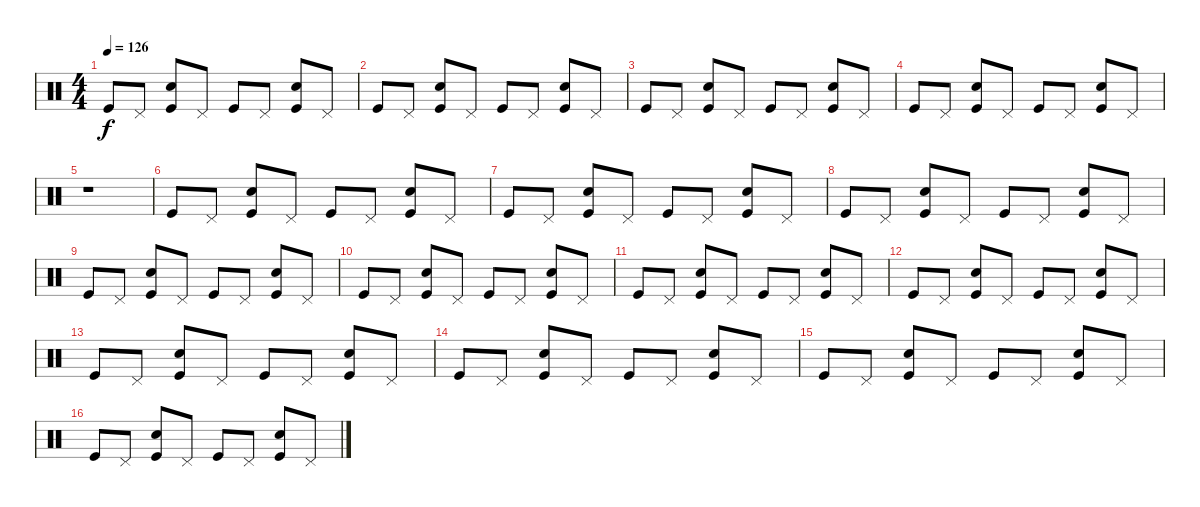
\track "" {instrument percussion}
\staff {score}
\articulation defaults
\ts (4 4)
\tempo 126
\clef neutral
\ks c "Kick (hit)".8{dy f} "Pedal Hi-Hat (hit)".8
("Kick (hit)" "Hand Clap (hit)").8 "Pedal Hi-Hat (hit)".8 "Kick (hit)".8 "Pedal Hi-Hat (hit)".8 ("Kick (hit)" "Hand Clap (hit)").8 "Pedal Hi-Hat (hit)".8 |
"Kick (hit)".8 "Pedal Hi-Hat (hit)".8 ("Kick (hit)" "Hand Clap (hit)").8 "Pedal Hi-Hat (hit)".8 "Kick (hit)".8 "Pedal Hi-Hat (hit)".8 ("Kick (hit)" "Hand Clap (hit)").8 "Pedal Hi-Hat (hit)".8 |
"Kick (hit)".8 "Pedal Hi-Hat (hit)".8 ("Kick (hit)" "Hand Clap (hit)").8 "Pedal Hi-Hat (hit)".8 "Kick (hit)".8 "Pedal Hi-Hat (hit)".8 ("Kick (hit)" "Hand Clap (hit)").8 "Pedal Hi-Hat (hit)".8 |
"Kick (hit)".8 "Pedal Hi-Hat (hit)".8 ("Kick (hit)" "Hand Clap (hit)").8 "Pedal Hi-Hat (hit)".8 "Kick (hit)".8 "Pedal Hi-Hat (hit)".8 ("Kick (hit)" "Hand Clap (hit)").8 "Pedal Hi-Hat (hit)".8 |
r.1 |
"Kick (hit)".8 "Pedal Hi-Hat (hit)".8 ("Kick (hit)" "Hand Clap (hit)").8 "Pedal Hi-Hat (hit)".8 "Kick (hit)".8 "Pedal Hi-Hat (hit)".8 ("Kick (hit)" "Hand Clap (hit)").8 "Pedal Hi-Hat (hit)".8 |
"Kick (hit)".8 "Pedal Hi-Hat (hit)".8 ("Kick (hit)" "Hand Clap (hit)").8 "Pedal Hi-Hat (hit)".8 "Kick (hit)".8 "Pedal Hi-Hat (hit)".8 ("Kick (hit)" "Hand Clap (hit)").8 "Pedal Hi-Hat (hit)".8 |
"Kick (hit)".8 "Pedal Hi-Hat (hit)".8 ("Kick (hit)" "Hand Clap (hit)").8 "Pedal Hi-Hat (hit)".8 "Kick (hit)".8 "Pedal Hi-Hat (hit)".8 ("Kick (hit)" "Hand Clap (hit)").8 "Pedal Hi-Hat (hit)".8 |
"Kick (hit)".8 "Pedal Hi-Hat (hit)".8 ("Kick (hit)" "Hand Clap (hit)").8 "Pedal Hi-Hat (hit)".8 "Kick (hit)".8 "Pedal Hi-Hat (hit)".8 ("Kick (hit)" "Hand Clap (hit)").8 "Pedal Hi-Hat (hit)".8 |
"Kick (hit)".8 "Pedal Hi-Hat (hit)".8 ("Kick (hit)" "Hand Clap (hit)").8 "Pedal Hi-Hat (hit)".8 "Kick (hit)".8 "Pedal Hi-Hat (hit)".8 ("Kick (hit)" "Hand Clap (hit)").8 "Pedal Hi-Hat (hit)".8 |
"Kick (hit)".8 "Pedal Hi-Hat (hit)".8 ("Kick (hit)" "Hand Clap (hit)").8 "Pedal Hi-Hat (hit)".8 "Kick (hit)".8 "Pedal Hi-Hat (hit)".8 ("Kick (hit)" "Hand Clap (hit)").8 "Pedal Hi-Hat (hit)".8 |
"Kick (hit)".8 "Pedal Hi-Hat (hit)".8 ("Kick (hit)" "Hand Clap (hit)").8 "Pedal Hi-Hat (hit)".8 "Kick (hit)".8 "Pedal Hi-Hat (hit)".8 ("Kick (hit)" "Hand Clap (hit)").8 "Pedal Hi-Hat (hit)".8 |
"Kick (hit)".8 "Pedal Hi-Hat (hit)".8 ("Kick (hit)" "Hand Clap (hit)").8 "Pedal Hi-Hat (hit)".8 "Kick (hit)".8 "Pedal Hi-Hat (hit)".8 ("Kick (hit)" "Hand Clap (hit)").8 "Pedal Hi-Hat (hit)".8 |
"Kick (hit)".8 "Pedal Hi-Hat (hit)".8 ("Kick (hit)" "Hand Clap (hit)").8 "Pedal Hi-Hat (hit)".8 "Kick (hit)".8 "Pedal Hi-Hat (hit)".8 ("Kick (hit)" "Hand Clap (hit)").8 "Pedal Hi-Hat (hit)".8 |
"Kick (hit)".8 "Pedal Hi-Hat (hit)".8 ("Kick (hit)" "Hand Clap (hit)").8 "Pedal Hi-Hat (hit)".8 "Kick (hit)".8 "Pedal Hi-Hat (hit)".8 ("Kick (hit)" "Hand Clap (hit)").8 "Pedal Hi-Hat (hit)".8 |
"Kick (hit)".8 "Pedal Hi-Hat (hit)".8 ("Kick (hit)" "Hand Clap (hit)").8 "Pedal Hi-Hat (hit)".8 "Kick (hit)".8 "Pedal Hi-Hat (hit)".8 ("Kick (hit)" "Hand Clap (hit)").8 "Pedal Hi-Hat (hit)".8
